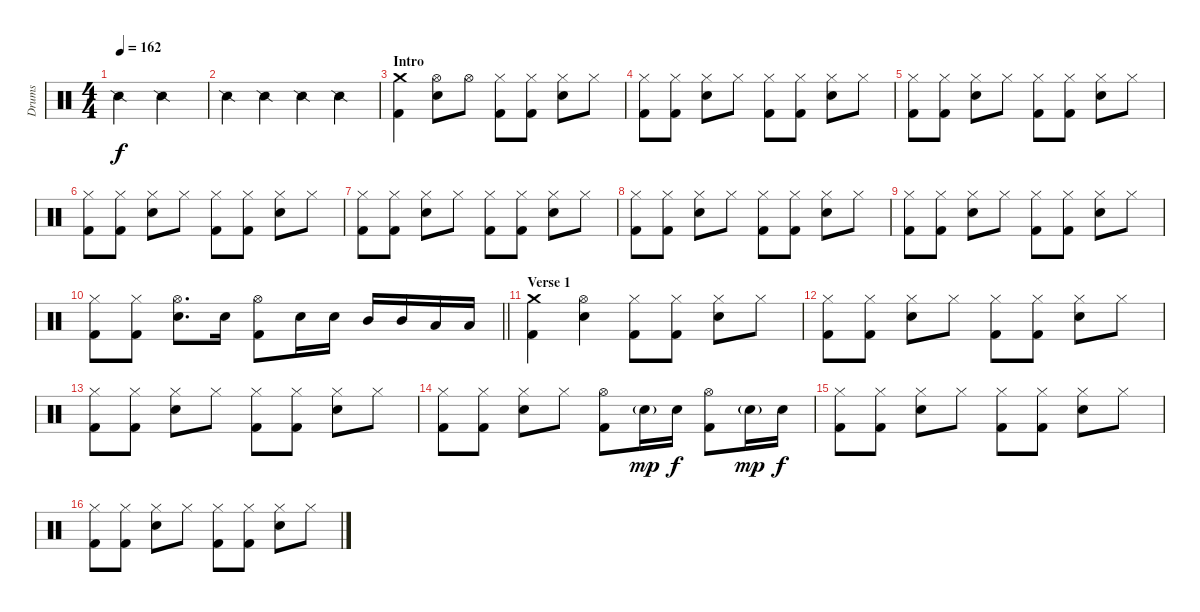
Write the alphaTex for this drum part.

\track ("Drums" "Drums") {instrument percussion}
\staff {score}
\articulation defaults
\ts (4 4)
\tempo 162
\clef neutral
\ks c "Snare (side stick) 2".2{dy f} "Snare (side stick) 2".2
|
"Snare (side stick) 2".4 "Snare (side stick) 2".4 "Snare (side stick) 2".4 "Snare (side stick) 2".4 |
\section ("" "Intro")
("Crash medium (hit)" "Kick (hit) 2").4 ("Hi-Hat (open)" "Electric Snare (hit)").8 "Hi-Hat (open)".8 ("Hi-Hat (closed)" "Kick (hit) 2").8 ("Hi-Hat (closed)" "Kick (hit) 2").8 ("Hi-Hat (closed)" "Electric Snare (hit)").8 "Hi-Hat (closed)".8 |
("Hi-Hat (closed)" "Kick (hit) 2").8 ("Hi-Hat (closed)" "Kick (hit) 2").8 ("Hi-Hat (closed)" "Electric Snare (hit)").8 "Hi-Hat (closed)".8 ("Hi-Hat (closed)" "Kick (hit) 2").8 ("Hi-Hat (closed)" "Kick (hit) 2").8 ("Hi-Hat (closed)" "Electric Snare (hit)").8 "Hi-Hat (closed)".8 |
("Hi-Hat (closed)" "Kick (hit) 2").8 ("Hi-Hat (closed)" "Kick (hit) 2").8 ("Hi-Hat (closed)" "Electric Snare (hit)").8 "Hi-Hat (closed)".8 ("Hi-Hat (closed)" "Kick (hit) 2").8 ("Hi-Hat (closed)" "Kick (hit) 2").8 ("Hi-Hat (closed)" "Electric Snare (hit)").8 "Hi-Hat (closed)".8 |
("Hi-Hat (closed)" "Kick (hit) 2").8 ("Hi-Hat (closed)" "Kick (hit) 2").8 ("Hi-Hat (closed)" "Electric Snare (hit)").8 "Hi-Hat (closed)".8 ("Hi-Hat (closed)" "Kick (hit) 2").8 ("Hi-Hat (closed)" "Kick (hit) 2").8 ("Hi-Hat (closed)" "Electric Snare (hit)").8 "Hi-Hat (closed)".8 |
("Hi-Hat (closed)" "Kick (hit) 2").8 ("Hi-Hat (closed)" "Kick (hit) 2").8 ("Hi-Hat (closed)" "Electric Snare (hit)").8 "Hi-Hat (closed)".8 ("Hi-Hat (closed)" "Kick (hit) 2").8 ("Hi-Hat (closed)" "Kick (hit) 2").8 ("Hi-Hat (closed)" "Electric Snare (hit)").8 "Hi-Hat (closed)".8 |
("Hi-Hat (closed)" "Kick (hit) 2").8 ("Hi-Hat (closed)" "Kick (hit) 2").8 ("Hi-Hat (closed)" "Electric Snare (hit)").8 "Hi-Hat (closed)".8 ("Hi-Hat (closed)" "Kick (hit) 2").8 ("Hi-Hat (closed)" "Kick (hit) 2").8 ("Hi-Hat (closed)" "Electric Snare (hit)").8 "Hi-Hat (closed)".8 |
("Hi-Hat (closed)" "Kick (hit) 2").8 ("Hi-Hat (closed)" "Kick (hit) 2").8 ("Hi-Hat (closed)" "Electric Snare (hit)").8 "Hi-Hat (closed)".8 ("Hi-Hat (closed)" "Kick (hit) 2").8 ("Hi-Hat (closed)" "Kick (hit) 2").8 ("Hi-Hat (closed)" "Electric Snare (hit)").8 "Hi-Hat (closed)".8 |
\barLineRight lightlight
("Hi-Hat (closed)" "Kick (hit) 2").8 ("Hi-Hat (closed)" "Kick (hit) 2").8 ("Hi-Hat (open)" "Electric Snare (hit)").8{d} "Electric Snare (hit)".16 ("Hi-Hat (open)" "Kick (hit) 2").8 "Electric Snare (hit)".16 "Electric Snare (hit)".16 "Mid Tom (hit)".16 "Mid Tom (hit)".16 "Low Tom (hit)".16 "Low Tom (hit)".16 |
\section ("" "Verse 1")
("Crash medium (hit)" "Kick (hit) 2").4 ("Hi-Hat (open)" "Electric Snare (hit)").4 ("Hi-Hat (closed)" "Kick (hit) 2").8 ("Hi-Hat (closed)" "Kick (hit) 2").8 ("Hi-Hat (closed)" "Electric Snare (hit)").8 "Hi-Hat (closed)".8 |
("Hi-Hat (closed)" "Kick (hit) 2").8 ("Hi-Hat (closed)" "Kick (hit) 2").8 ("Hi-Hat (closed)" "Electric Snare (hit)").8 "Hi-Hat (closed)".8 ("Hi-Hat (closed)" "Kick (hit) 2").8 ("Hi-Hat (closed)" "Kick (hit) 2").8 ("Hi-Hat (closed)" "Electric Snare (hit)").8 "Hi-Hat (closed)".8 |
("Hi-Hat (closed)" "Kick (hit) 2").8 ("Hi-Hat (closed)" "Kick (hit) 2").8 ("Hi-Hat (closed)" "Electric Snare (hit)").8 "Hi-Hat (closed)".8 ("Hi-Hat (closed)" "Kick (hit) 2").8 ("Hi-Hat (closed)" "Kick (hit) 2").8 ("Hi-Hat (closed)" "Electric Snare (hit)").8 "Hi-Hat (closed)".8 |
("Hi-Hat (closed)" "Kick (hit) 2").8 ("Hi-Hat (closed)" "Kick (hit) 2").8 ("Hi-Hat (closed)" "Electric Snare (hit)").8 "Hi-Hat (closed)".8 ("Hi-Hat (open)" "Kick (hit) 2").8 "Electric Snare (hit)"{g}.16{dy mp} "Electric Snare (hit)".16{dy f} ("Hi-Hat (open)" "Kick (hit) 2").8 "Electric Snare (hit)"{g}.16{dy mp} "Electric Snare (hit)".16{dy f} |
("Hi-Hat (closed)" "Kick (hit) 2").8 ("Hi-Hat (closed)" "Kick (hit) 2").8 ("Hi-Hat (closed)" "Electric Snare (hit)").8 "Hi-Hat (closed)".8 ("Hi-Hat (closed)" "Kick (hit) 2").8 ("Hi-Hat (closed)" "Kick (hit) 2").8 ("Hi-Hat (closed)" "Electric Snare (hit)").8 "Hi-Hat (closed)".8 |
("Hi-Hat (closed)" "Kick (hit) 2").8 ("Hi-Hat (closed)" "Kick (hit) 2").8 ("Hi-Hat (closed)" "Electric Snare (hit)").8 "Hi-Hat (closed)".8 ("Hi-Hat (closed)" "Kick (hit) 2").8 ("Hi-Hat (closed)" "Kick (hit) 2").8 ("Hi-Hat (closed)" "Electric Snare (hit)").8 "Hi-Hat (closed)".8
